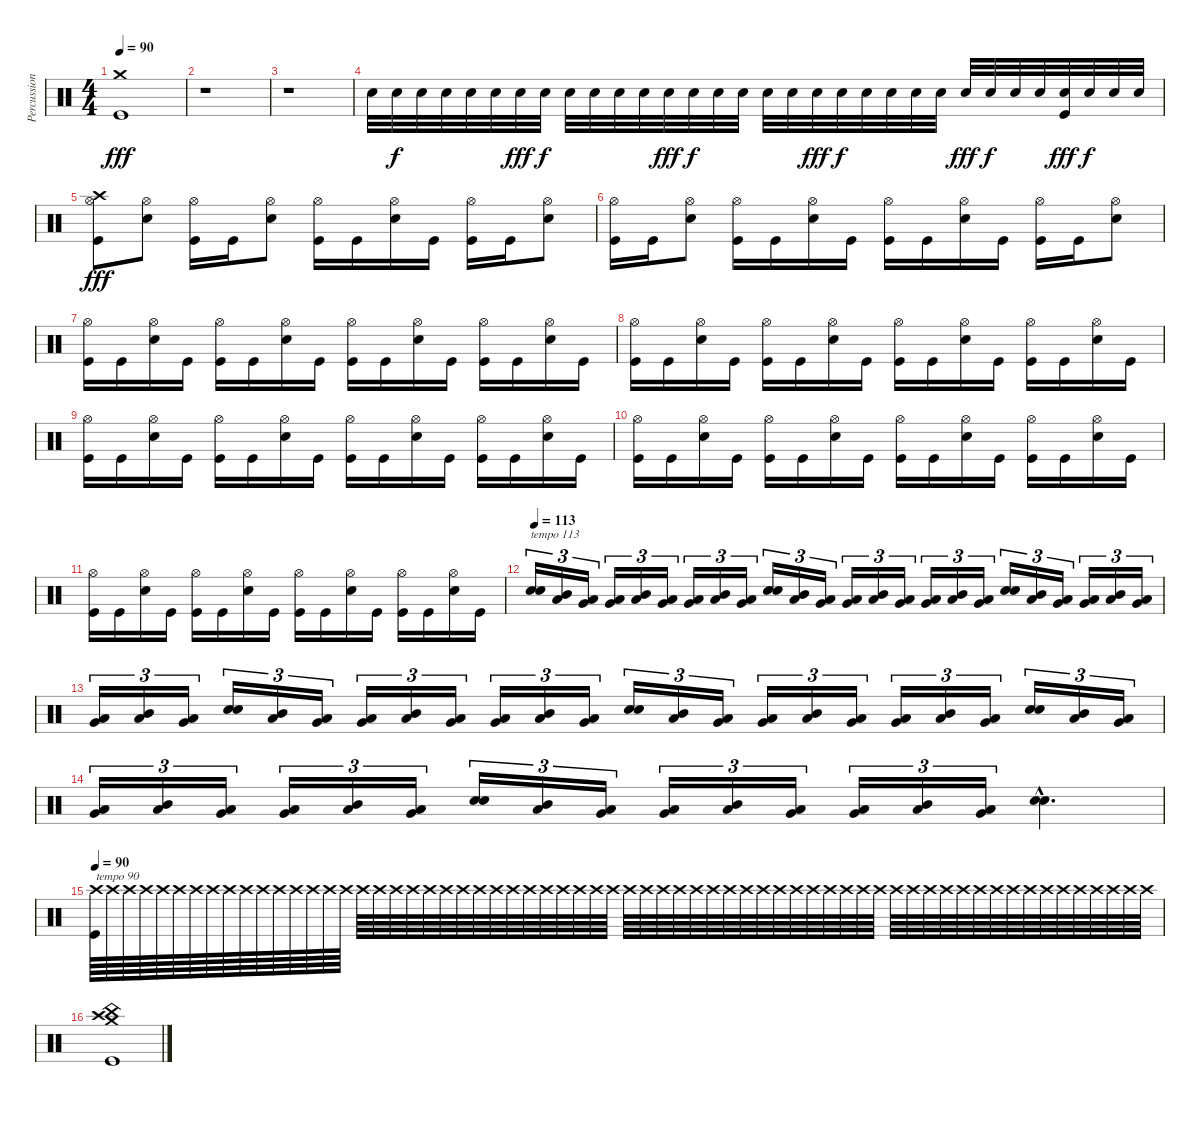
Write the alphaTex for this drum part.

\track ("Percussion" "Percussion") {instrument percussion}
\staff {score}
\articulation defaults
\ts (4 4)
\tempo 90
\clef neutral
\ks c
("Crash medium (hit)" "Kick (hit)").1{dy fff} |
r.1 |
r.1 |
"Electric Snare (hit)".32 "Electric Snare (hit)".32{dy f} "Electric Snare (hit)".32 "Electric Snare (hit)".32 "Electric Snare (hit)".32 "Electric Snare (hit)".32 "Electric Snare (hit)".32{dy fff} "Electric Snare (hit)".32{dy f} "Electric Snare (hit)".32 "Electric Snare (hit)".32 "Electric Snare (hit)".32 "Electric Snare (hit)".32 "Electric Snare (hit)".32{dy fff} "Electric Snare (hit)".32{dy f} "Electric Snare (hit)".32 "Electric Snare (hit)".32 "Electric Snare (hit)".32 "Electric Snare (hit)".32 "Electric Snare (hit)".32{dy fff} "Electric Snare (hit)".32{dy f} "Electric Snare (hit)".32 "Electric Snare (hit)".32 "Electric Snare (hit)".32 "Electric Snare (hit)".32 "Electric Snare (hit)".32{dy fff} "Electric Snare (hit)".32{dy f} "Electric Snare (hit)".32 "Electric Snare (hit)".32 ("Electric Snare (hit)" "Kick (hit)").32{dy fff} "Electric Snare (hit)".32{dy f} "Electric Snare (hit)".32 "Electric Snare (hit)".32 |
("Hi-Hat (open)" "Crash high (hit)" "Kick (hit)").8{dy fff} ("Hi-Hat (open)" "Electric Snare (hit)").8 ("Hi-Hat (open)" "Kick (hit)").16 "Kick (hit)".16 ("Hi-Hat (open)" "Electric Snare (hit)").8 ("Hi-Hat (open)" "Kick (hit)").16 "Kick (hit)".16 ("Hi-Hat (open)" "Electric Snare (hit)").16 "Kick (hit)".16 ("Hi-Hat (open)" "Kick (hit)").16 "Kick (hit)".16 ("Hi-Hat (open)" "Electric Snare (hit)").8 |
("Hi-Hat (open)" "Kick (hit)").16 "Kick (hit)".16 ("Hi-Hat (open)" "Electric Snare (hit)").8 ("Hi-Hat (open)" "Kick (hit)").16 "Kick (hit)".16 ("Hi-Hat (open)" "Electric Snare (hit)").16 "Kick (hit)".16 ("Hi-Hat (open)" "Kick (hit)").16 "Kick (hit)".16 ("Hi-Hat (open)" "Electric Snare (hit)").16 "Kick (hit)".16 ("Hi-Hat (open)" "Kick (hit)").16 "Kick (hit)".16 ("Hi-Hat (open)" "Electric Snare (hit)").8 |
("Hi-Hat (open)" "Kick (hit)").16 "Kick (hit)".16 ("Hi-Hat (open)" "Electric Snare (hit)").16 "Kick (hit)".16 ("Hi-Hat (open)" "Kick (hit)").16 "Kick (hit)".16 ("Hi-Hat (open)" "Electric Snare (hit)").16 "Kick (hit)".16 ("Hi-Hat (open)" "Kick (hit)").16 "Kick (hit)".16 ("Hi-Hat (open)" "Electric Snare (hit)").16 "Kick (hit)".16 ("Hi-Hat (open)" "Kick (hit)").16 "Kick (hit)".16 ("Hi-Hat (open)" "Electric Snare (hit)").16 "Kick (hit)".16 |
("Hi-Hat (open)" "Kick (hit)").16 "Kick (hit)".16 ("Hi-Hat (open)" "Electric Snare (hit)").16 "Kick (hit)".16 ("Hi-Hat (open)" "Kick (hit)").16 "Kick (hit)".16 ("Hi-Hat (open)" "Electric Snare (hit)").16 "Kick (hit)".16 ("Hi-Hat (open)" "Kick (hit)").16 "Kick (hit)".16 ("Hi-Hat (open)" "Electric Snare (hit)").16 "Kick (hit)".16 ("Hi-Hat (open)" "Kick (hit)").16 "Kick (hit)".16 ("Hi-Hat (open)" "Electric Snare (hit)").16 "Kick (hit)".16 |
("Hi-Hat (open)" "Kick (hit)").16 "Kick (hit)".16 ("Hi-Hat (open)" "Electric Snare (hit)").16 "Kick (hit)".16 ("Hi-Hat (open)" "Kick (hit)").16 "Kick (hit)".16 ("Hi-Hat (open)" "Electric Snare (hit)").16 "Kick (hit)".16 ("Hi-Hat (open)" "Kick (hit)").16 "Kick (hit)".16 ("Hi-Hat (open)" "Electric Snare (hit)").16 "Kick (hit)".16 ("Hi-Hat (open)" "Kick (hit)").16 "Kick (hit)".16 ("Hi-Hat (open)" "Electric Snare (hit)").16 "Kick (hit)".16 |
("Hi-Hat (open)" "Kick (hit)").16 "Kick (hit)".16 ("Hi-Hat (open)" "Electric Snare (hit)").16 "Kick (hit)".16 ("Hi-Hat (open)" "Kick (hit)").16 "Kick (hit)".16 ("Hi-Hat (open)" "Electric Snare (hit)").16 "Kick (hit)".16 ("Hi-Hat (open)" "Kick (hit)").16 "Kick (hit)".16 ("Hi-Hat (open)" "Electric Snare (hit)").16 "Kick (hit)".16 ("Hi-Hat (open)" "Kick (hit)").16 "Kick (hit)".16 ("Hi-Hat (open)" "Electric Snare (hit)").16 "Kick (hit)".16 |
("Hi-Hat (open)" "Kick (hit)").16 "Kick (hit)".16 ("Hi-Hat (open)" "Electric Snare (hit)").16 "Kick (hit)".16 ("Hi-Hat (open)" "Kick (hit)").16 "Kick (hit)".16 ("Hi-Hat (open)" "Electric Snare (hit)").16 "Kick (hit)".16 ("Hi-Hat (open)" "Kick (hit)").16 "Kick (hit)".16 ("Hi-Hat (open)" "Electric Snare (hit)").16 "Kick (hit)".16 ("Hi-Hat (open)" "Kick (hit)").16 "Kick (hit)".16 ("Hi-Hat (open)" "Electric Snare (hit)").16 "Kick (hit)".16 |
\tempo 113
("Electric Snare (hit)" "Snare (hit) 2").16{tu (3 2) txt "tempo 113"} ("Mid Tom (hit)" "Low Tom (hit)").16{tu (3 2)} ("Very Low Tom (hit)" "Low Floor Tom (hit)").16{tu (3 2)} ("Low Tom (hit)" "Very Low Tom (hit)").16{tu (3 2)} ("Mid Tom (hit)" "Low Tom (hit)").16{tu (3 2)} ("Very Low Tom (hit)" "Low Floor Tom (hit)").16{tu (3 2)} ("Low Tom (hit)" "Very Low Tom (hit)").16{tu (3 2)} ("Mid Tom (hit)" "Low Tom (hit)").16{tu (3 2)} ("Very Low Tom (hit)" "Low Floor Tom (hit)").16{tu (3 2)} ("Electric Snare (hit)" "Snare (hit) 2").16{tu (3 2)} ("Mid Tom (hit)" "Low Tom (hit)").16{tu (3 2)} ("Very Low Tom (hit)" "Low Floor Tom (hit)").16{tu (3 2)} ("Low Tom (hit)" "Very Low Tom (hit)").16{tu (3 2)} ("Mid Tom (hit)" "Low Tom (hit)").16{tu (3 2)} ("Very Low Tom (hit)" "Low Floor Tom (hit)").16{tu (3 2)} ("Low Tom (hit)" "Very Low Tom (hit)").16{tu (3 2)} ("Mid Tom (hit)" "Low Tom (hit)").16{tu (3 2)} ("Very Low Tom (hit)" "Low Floor Tom (hit)").16{tu (3 2)} ("Electric Snare (hit)" "Snare (hit) 2").16{tu (3 2)} ("Mid Tom (hit)" "Low Tom (hit)").16{tu (3 2)} ("Very Low Tom (hit)" "Low Floor Tom (hit)").16{tu (3 2)} ("Low Tom (hit)" "Very Low Tom (hit)").16{tu (3 2)} ("Mid Tom (hit)" "Low Tom (hit)").16{tu (3 2)} ("Very Low Tom (hit)" "Low Floor Tom (hit)").16{tu (3 2)} |
("Low Tom (hit)" "Very Low Tom (hit)").16{tu (3 2)} ("Mid Tom (hit)" "Low Tom (hit)").16{tu (3 2)} ("Very Low Tom (hit)" "Low Floor Tom (hit)").16{tu (3 2)} ("Electric Snare (hit)" "Snare (hit) 2").16{tu (3 2)} ("Mid Tom (hit)" "Low Tom (hit)").16{tu (3 2)} ("Very Low Tom (hit)" "Low Floor Tom (hit)").16{tu (3 2)} ("Low Tom (hit)" "Very Low Tom (hit)").16{tu (3 2)} ("Mid Tom (hit)" "Low Tom (hit)").16{tu (3 2)} ("Very Low Tom (hit)" "Low Floor Tom (hit)").16{tu (3 2)} ("Low Tom (hit)" "Very Low Tom (hit)").16{tu (3 2)} ("Mid Tom (hit)" "Low Tom (hit)").16{tu (3 2)} ("Very Low Tom (hit)" "Low Floor Tom (hit)").16{tu (3 2)} ("Electric Snare (hit)" "Snare (hit) 2").16{tu (3 2)} ("Mid Tom (hit)" "Low Tom (hit)").16{tu (3 2)} ("Very Low Tom (hit)" "Low Floor Tom (hit)").16{tu (3 2)} ("Low Tom (hit)" "Very Low Tom (hit)").16{tu (3 2)} ("Mid Tom (hit)" "Low Tom (hit)").16{tu (3 2)} ("Very Low Tom (hit)" "Low Floor Tom (hit)").16{tu (3 2)} ("Low Tom (hit)" "Very Low Tom (hit)").16{tu (3 2)} ("Mid Tom (hit)" "Low Tom (hit)").16{tu (3 2)} ("Very Low Tom (hit)" "Low Floor Tom (hit)").16{tu (3 2)} ("Electric Snare (hit)" "Snare (hit) 2").16{tu (3 2)} ("Mid Tom (hit)" "Low Tom (hit)").16{tu (3 2)} ("Very Low Tom (hit)" "Low Floor Tom (hit)").16{tu (3 2)} |
("Low Tom (hit)" "Very Low Tom (hit)").16{tu (3 2)} ("Mid Tom (hit)" "Low Tom (hit)").16{tu (3 2)} ("Very Low Tom (hit)" "Low Floor Tom (hit)").16{tu (3 2)} ("Low Tom (hit)" "Very Low Tom (hit)").16{tu (3 2)} ("Mid Tom (hit)" "Low Tom (hit)").16{tu (3 2)} ("Very Low Tom (hit)" "Low Floor Tom (hit)").16{tu (3 2)} ("Electric Snare (hit)" "Snare (hit) 2").16{tu (3 2)} ("Mid Tom (hit)" "Low Tom (hit)").16{tu (3 2)} ("Very Low Tom (hit)" "Low Floor Tom (hit)").16{tu (3 2)} ("Low Tom (hit)" "Very Low Tom (hit)").16{tu (3 2)} ("Mid Tom (hit)" "Low Tom (hit)").16{tu (3 2)} ("Very Low Tom (hit)" "Low Floor Tom (hit)").16{tu (3 2)} ("Low Tom (hit)" "Very Low Tom (hit)").16{tu (3 2)} ("Mid Tom (hit)" "Low Tom (hit)").16{tu (3 2)} ("Very Low Tom (hit)" "Low Floor Tom (hit)").16{tu (3 2)} ("Electric Snare (hit)"{hac} "Snare (hit) 2"{hac}).4{d} |
\tempo 90
("Crash high (hit)" "Kick (hit)").64{txt "tempo 90"} "Crash high (hit)".64 "Crash high (hit)".64 "Crash high (hit)".64 "Crash high (hit)".64 "Crash high (hit)".64 "Crash high (hit)".64 "Crash high (hit)".64 "Crash high (hit)".64 "Crash high (hit)".64 "Crash high (hit)".64 "Crash high (hit)".64 "Crash high (hit)".64 "Crash high (hit)".64 "Crash high (hit)".64 "Crash high (hit)".64 "Crash high (hit)".64 "Crash high (hit)".64 "Crash high (hit)".64 "Crash high (hit)".64 "Crash high (hit)".64 "Crash high (hit)".64 "Crash high (hit)".64 "Crash high (hit)".64 "Crash high (hit)".64 "Crash high (hit)".64 "Crash high (hit)".64 "Crash high (hit)".64 "Crash high (hit)".64 "Crash high (hit)".64 "Crash high (hit)".64 "Crash high (hit)".64 "Crash high (hit)".64 "Crash high (hit)".64 "Crash high (hit)".64 "Crash high (hit)".64 "Crash high (hit)".64 "Crash high (hit)".64 "Crash high (hit)".64 "Crash high (hit)".64 "Crash high (hit)".64 "Crash high (hit)".64 "Crash high (hit)".64 "Crash high (hit)".64 "Crash high (hit)".64 "Crash high (hit)".64 "Crash high (hit)".64 "Crash high (hit)".64 "Crash high (hit)".64 "Crash high (hit)".64 "Crash high (hit)".64 "Crash high (hit)".64 "Crash high (hit)".64 "Crash high (hit)".64 "Crash high (hit)".64 "Crash high (hit)".64 "Crash high (hit)".64 "Crash high (hit)".64 "Crash high (hit)".64 "Crash high (hit)".64 "Crash high (hit)".64 "Crash high (hit)".64 "Crash high (hit)".64 "Crash high (hit)".64 |
("Crash medium (hit)" "China (hit)" "Crash high (hit)" "Kick (hit)").1
